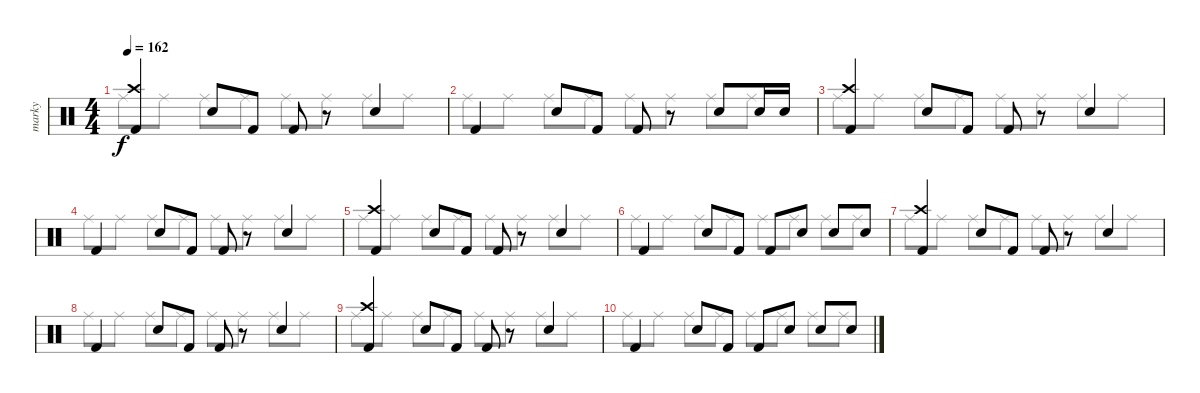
\track ("marky" "marky") {instrument percussion}
\staff {score}
\articulation defaults
\voice
\ts (4 4)
\tempo 162
\clef neutral
\ks c
("Kick (hit) 2" "Crash high (hit)").4{dy f} "Electric Snare (hit)".8 "Kick (hit) 2".8 "Kick (hit) 2".8 r.8 "Electric Snare (hit)".4 |
"Kick (hit) 2".4 "Electric Snare (hit)".8 "Kick (hit) 2".8 "Kick (hit) 2".8 r.8 "Electric Snare (hit)".8 "Electric Snare (hit)".16 "Electric Snare (hit)".16 |
("Kick (hit) 2" "Crash high (hit)").4 "Electric Snare (hit)".8 "Kick (hit) 2".8 "Kick (hit) 2".8 r.8 "Electric Snare (hit)".4 |
"Kick (hit) 2".4 "Electric Snare (hit)".8 "Kick (hit) 2".8 "Kick (hit) 2".8 r.8 "Electric Snare (hit)".4 |
("Kick (hit) 2" "Crash high (hit)").4 "Electric Snare (hit)".8 "Kick (hit) 2".8 "Kick (hit) 2".8 r.8 "Electric Snare (hit)".4 |
"Kick (hit) 2".4 "Electric Snare (hit)".8 "Kick (hit) 2".8 "Kick (hit) 2".8 "Electric Snare (hit)".8 "Electric Snare (hit)".8 "Electric Snare (hit)".8 |
("Kick (hit) 2" "Crash high (hit)").4 "Electric Snare (hit)".8 "Kick (hit) 2".8 "Kick (hit) 2".8 r.8 "Electric Snare (hit)".4 |
"Kick (hit) 2".4 "Electric Snare (hit)".8 "Kick (hit) 2".8 "Kick (hit) 2".8 r.8 "Electric Snare (hit)".4 |
("Kick (hit) 2" "Crash high (hit)").4 "Electric Snare (hit)".8 "Kick (hit) 2".8 "Kick (hit) 2".8 r.8 "Electric Snare (hit)".4 |
"Kick (hit) 2".4 "Electric Snare (hit)".8 "Kick (hit) 2".8 "Kick (hit) 2".8 "Electric Snare (hit)".8 "Electric Snare (hit)".8 "Electric Snare (hit)".8
\voice
\clef neutral
\ottava regular
\simile none
\ks c "Ride (middle)".8{dy f} "Ride (middle)".8 "Ride (middle)".8 "Ride (middle)".8 "Ride (middle)".8 "Ride (middle)".8 "Ride (middle)".8 "Ride (middle)".8
|
"Ride (middle)".8 "Ride (middle)".8 "Ride (middle)".8 "Ride (middle)".8 "Ride (middle)".8 "Ride (middle)".8 "Ride (middle)".8 "Ride (middle)".8 |
"Ride (middle)".8 "Ride (middle)".8 "Ride (middle)".8 "Ride (middle)".8 "Ride (middle)".8 "Ride (middle)".8 "Ride (middle)".8 "Ride (middle)".8 |
"Ride (middle)".8 "Ride (middle)".8 "Ride (middle)".8 "Ride (middle)".8 "Ride (middle)".8 "Ride (middle)".8 "Ride (middle)".8 "Ride (middle)".8 |
"Ride (middle)".8 "Ride (middle)".8 "Ride (middle)".8 "Ride (middle)".8 "Ride (middle)".8 "Ride (middle)".8 "Ride (middle)".8 "Ride (middle)".8 |
"Ride (middle)".8 "Ride (middle)".8 "Ride (middle)".8 "Ride (middle)".8 "Ride (middle)".8 "Ride (middle)".8 "Ride (middle)".8 "Ride (middle)".8 |
"Ride (middle)".8 "Ride (middle)".8 "Ride (middle)".8 "Ride (middle)".8 "Ride (middle)".8 "Ride (middle)".8 "Ride (middle)".8 "Ride (middle)".8 |
"Ride (middle)".8 "Ride (middle)".8 "Ride (middle)".8 "Ride (middle)".8 "Ride (middle)".8 "Ride (middle)".8 "Ride (middle)".8 "Ride (middle)".8 |
"Ride (middle)".8 "Ride (middle)".8 "Ride (middle)".8 "Ride (middle)".8 "Ride (middle)".8 "Ride (middle)".8 "Ride (middle)".8 "Ride (middle)".8 |
"Ride (middle)".8 "Ride (middle)".8 "Ride (middle)".8 "Ride (middle)".8 "Ride (middle)".8 "Ride (middle)".8 "Ride (middle)".8 "Ride (middle)".8
